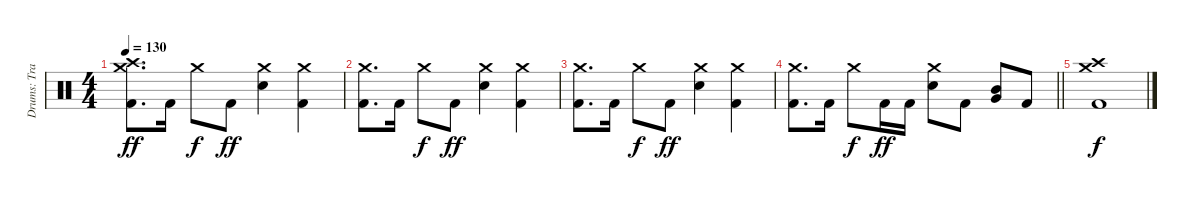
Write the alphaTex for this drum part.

\track ("Drums: Travis Clarke" "Drums: Tra") {instrument percussion}
\staff {score}
\articulation defaults
\ts (4 4)
\tempo 130
\clef neutral
\ks c
("Kick (hit) 2" "Crash high (hit)" "Crash medium (hit)").8{d dy ff} "Kick (hit) 2".16 "Crash medium (hit)".8{dy f} "Kick (hit) 2".8{dy ff} ("Snare (hit) 2" "Crash medium (hit)").4 ("Kick (hit) 2" "Crash medium (hit)").4 |
("Kick (hit) 2" "Crash medium (hit)").8{d} "Kick (hit) 2".16 "Crash medium (hit)".8{dy f} "Kick (hit) 2".8{dy ff} ("Snare (hit) 2" "Crash medium (hit)").4 ("Kick (hit) 2" "Crash medium (hit)").4 |
("Kick (hit) 2" "Crash medium (hit)").8{d} "Kick (hit) 2".16 "Crash medium (hit)".8{dy f} "Kick (hit) 2".8{dy ff} ("Snare (hit) 2" "Crash medium (hit)").4 ("Kick (hit) 2" "Crash medium (hit)").4 |
\barLineRight lightlight
("Kick (hit) 2" "Crash medium (hit)").8{d} "Kick (hit) 2".16 "Crash medium (hit)".8{dy f} "Kick (hit) 2".16{dy ff} "Kick (hit) 2".16 ("Snare (hit) 2" "Crash medium (hit)").8 "Kick (hit) 2".8 ("Very Low Tom (hit)" "Mid Tom (hit)").8 "Kick (hit) 2".8 |
("Kick (hit) 2" "Crash high (hit)" "Crash medium (hit)").1{dy f}
